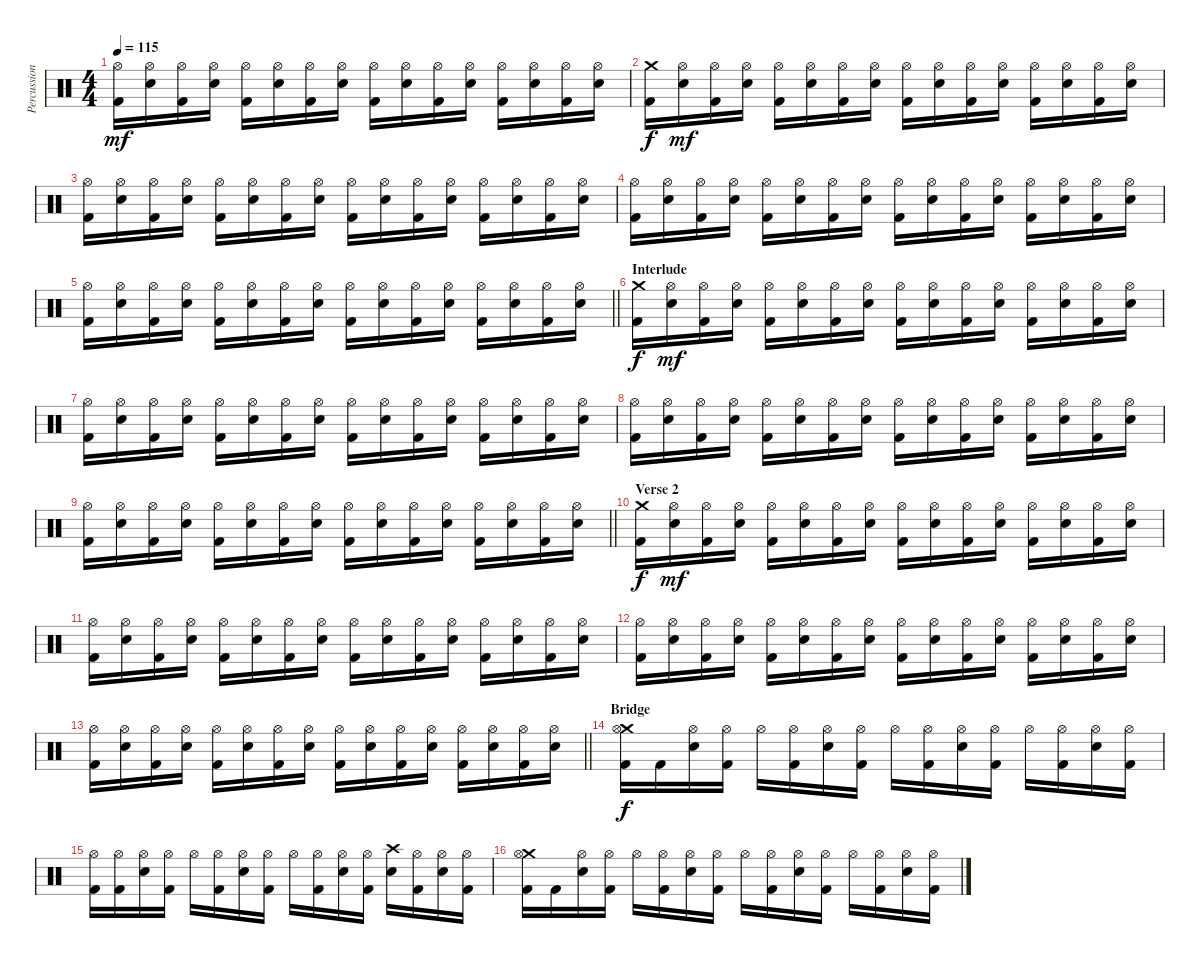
\track ("Percussion" "Percussion") {instrument percussion}
\staff {score}
\articulation defaults
\ts (4 4)
\tempo 115
\clef neutral
\ks c
("Hi-Hat (open)" "Kick (hit) 2").16{dy mf} ("Hi-Hat (open)" "Snare (hit) 2").16 ("Hi-Hat (open)" "Kick (hit) 2").16 ("Hi-Hat (open)" "Snare (hit) 2").16 ("Hi-Hat (open)" "Kick (hit) 2").16 ("Hi-Hat (open)" "Snare (hit) 2").16 ("Hi-Hat (open)" "Kick (hit) 2").16 ("Hi-Hat (open)" "Snare (hit) 2").16 ("Hi-Hat (open)" "Kick (hit) 2").16 ("Hi-Hat (open)" "Snare (hit) 2").16 ("Hi-Hat (open)" "Kick (hit) 2").16 ("Hi-Hat (open)" "Snare (hit) 2").16 ("Hi-Hat (open)" "Kick (hit) 2").16 ("Hi-Hat (open)" "Snare (hit) 2").16 ("Hi-Hat (open)" "Kick (hit) 2").16 ("Hi-Hat (open)" "Snare (hit) 2").16 |
("Crash medium (hit)" "Kick (hit) 2").16{dy f} ("Hi-Hat (open)" "Snare (hit) 2").16{dy mf} ("Hi-Hat (open)" "Kick (hit) 2").16 ("Hi-Hat (open)" "Snare (hit) 2").16 ("Hi-Hat (open)" "Kick (hit) 2").16 ("Hi-Hat (open)" "Snare (hit) 2").16 ("Hi-Hat (open)" "Kick (hit) 2").16 ("Hi-Hat (open)" "Snare (hit) 2").16 ("Hi-Hat (open)" "Kick (hit) 2").16 ("Hi-Hat (open)" "Snare (hit) 2").16 ("Hi-Hat (open)" "Kick (hit) 2").16 ("Hi-Hat (open)" "Snare (hit) 2").16 ("Hi-Hat (open)" "Kick (hit) 2").16 ("Hi-Hat (open)" "Snare (hit) 2").16 ("Hi-Hat (open)" "Kick (hit) 2").16 ("Hi-Hat (open)" "Snare (hit) 2").16 |
("Hi-Hat (open)" "Kick (hit) 2").16 ("Hi-Hat (open)" "Snare (hit) 2").16 ("Hi-Hat (open)" "Kick (hit) 2").16 ("Hi-Hat (open)" "Snare (hit) 2").16 ("Hi-Hat (open)" "Kick (hit) 2").16 ("Hi-Hat (open)" "Snare (hit) 2").16 ("Hi-Hat (open)" "Kick (hit) 2").16 ("Hi-Hat (open)" "Snare (hit) 2").16 ("Hi-Hat (open)" "Kick (hit) 2").16 ("Hi-Hat (open)" "Snare (hit) 2").16 ("Hi-Hat (open)" "Kick (hit) 2").16 ("Hi-Hat (open)" "Snare (hit) 2").16 ("Hi-Hat (open)" "Kick (hit) 2").16 ("Hi-Hat (open)" "Snare (hit) 2").16 ("Hi-Hat (open)" "Kick (hit) 2").16 ("Hi-Hat (open)" "Snare (hit) 2").16 |
("Hi-Hat (open)" "Kick (hit) 2").16 ("Hi-Hat (open)" "Snare (hit) 2").16 ("Hi-Hat (open)" "Kick (hit) 2").16 ("Hi-Hat (open)" "Snare (hit) 2").16 ("Hi-Hat (open)" "Kick (hit) 2").16 ("Hi-Hat (open)" "Snare (hit) 2").16 ("Hi-Hat (open)" "Kick (hit) 2").16 ("Hi-Hat (open)" "Snare (hit) 2").16 ("Hi-Hat (open)" "Kick (hit) 2").16 ("Hi-Hat (open)" "Snare (hit) 2").16 ("Hi-Hat (open)" "Kick (hit) 2").16 ("Hi-Hat (open)" "Snare (hit) 2").16 ("Hi-Hat (open)" "Kick (hit) 2").16 ("Hi-Hat (open)" "Snare (hit) 2").16 ("Hi-Hat (open)" "Kick (hit) 2").16 ("Hi-Hat (open)" "Snare (hit) 2").16 |
\barLineRight lightlight
("Hi-Hat (open)" "Kick (hit) 2").16 ("Hi-Hat (open)" "Snare (hit) 2").16 ("Hi-Hat (open)" "Kick (hit) 2").16 ("Hi-Hat (open)" "Snare (hit) 2").16 ("Hi-Hat (open)" "Kick (hit) 2").16 ("Hi-Hat (open)" "Snare (hit) 2").16 ("Hi-Hat (open)" "Kick (hit) 2").16 ("Hi-Hat (open)" "Snare (hit) 2").16 ("Hi-Hat (open)" "Kick (hit) 2").16 ("Hi-Hat (open)" "Snare (hit) 2").16 ("Hi-Hat (open)" "Kick (hit) 2").16 ("Hi-Hat (open)" "Snare (hit) 2").16 ("Hi-Hat (open)" "Kick (hit) 2").16 ("Hi-Hat (open)" "Snare (hit) 2").16 ("Hi-Hat (open)" "Kick (hit) 2").16 ("Hi-Hat (open)" "Snare (hit) 2").16 |
\section ("" "Interlude")
("Crash medium (hit)" "Kick (hit) 2").16{dy f} ("Hi-Hat (open)" "Snare (hit) 2").16{dy mf} ("Hi-Hat (open)" "Kick (hit) 2").16 ("Hi-Hat (open)" "Snare (hit) 2").16 ("Hi-Hat (open)" "Kick (hit) 2").16 ("Hi-Hat (open)" "Snare (hit) 2").16 ("Hi-Hat (open)" "Kick (hit) 2").16 ("Hi-Hat (open)" "Snare (hit) 2").16 ("Hi-Hat (open)" "Kick (hit) 2").16 ("Hi-Hat (open)" "Snare (hit) 2").16 ("Hi-Hat (open)" "Kick (hit) 2").16 ("Hi-Hat (open)" "Snare (hit) 2").16 ("Hi-Hat (open)" "Kick (hit) 2").16 ("Hi-Hat (open)" "Snare (hit) 2").16 ("Hi-Hat (open)" "Kick (hit) 2").16 ("Hi-Hat (open)" "Snare (hit) 2").16 |
("Hi-Hat (open)" "Kick (hit) 2").16 ("Hi-Hat (open)" "Snare (hit) 2").16 ("Hi-Hat (open)" "Kick (hit) 2").16 ("Hi-Hat (open)" "Snare (hit) 2").16 ("Hi-Hat (open)" "Kick (hit) 2").16 ("Hi-Hat (open)" "Snare (hit) 2").16 ("Hi-Hat (open)" "Kick (hit) 2").16 ("Hi-Hat (open)" "Snare (hit) 2").16 ("Hi-Hat (open)" "Kick (hit) 2").16 ("Hi-Hat (open)" "Snare (hit) 2").16 ("Hi-Hat (open)" "Kick (hit) 2").16 ("Hi-Hat (open)" "Snare (hit) 2").16 ("Hi-Hat (open)" "Kick (hit) 2").16 ("Hi-Hat (open)" "Snare (hit) 2").16 ("Hi-Hat (open)" "Kick (hit) 2").16 ("Hi-Hat (open)" "Snare (hit) 2").16 |
("Hi-Hat (open)" "Kick (hit) 2").16 ("Hi-Hat (open)" "Snare (hit) 2").16 ("Hi-Hat (open)" "Kick (hit) 2").16 ("Hi-Hat (open)" "Snare (hit) 2").16 ("Hi-Hat (open)" "Kick (hit) 2").16 ("Hi-Hat (open)" "Snare (hit) 2").16 ("Hi-Hat (open)" "Kick (hit) 2").16 ("Hi-Hat (open)" "Snare (hit) 2").16 ("Hi-Hat (open)" "Kick (hit) 2").16 ("Hi-Hat (open)" "Snare (hit) 2").16 ("Hi-Hat (open)" "Kick (hit) 2").16 ("Hi-Hat (open)" "Snare (hit) 2").16 ("Hi-Hat (open)" "Kick (hit) 2").16 ("Hi-Hat (open)" "Snare (hit) 2").16 ("Hi-Hat (open)" "Kick (hit) 2").16 ("Hi-Hat (open)" "Snare (hit) 2").16 |
\barLineRight lightlight
("Hi-Hat (open)" "Kick (hit) 2").16 ("Hi-Hat (open)" "Snare (hit) 2").16 ("Hi-Hat (open)" "Kick (hit) 2").16 ("Hi-Hat (open)" "Snare (hit) 2").16 ("Hi-Hat (open)" "Kick (hit) 2").16 ("Hi-Hat (open)" "Snare (hit) 2").16 ("Hi-Hat (open)" "Kick (hit) 2").16 ("Hi-Hat (open)" "Snare (hit) 2").16 ("Hi-Hat (open)" "Kick (hit) 2").16 ("Hi-Hat (open)" "Snare (hit) 2").16 ("Hi-Hat (open)" "Kick (hit) 2").16 ("Hi-Hat (open)" "Snare (hit) 2").16 ("Hi-Hat (open)" "Kick (hit) 2").16 ("Hi-Hat (open)" "Snare (hit) 2").16 ("Hi-Hat (open)" "Kick (hit) 2").16 ("Hi-Hat (open)" "Snare (hit) 2").16 |
\section ("" "Verse 2")
("Crash medium (hit)" "Kick (hit) 2").16{dy f} ("Hi-Hat (open)" "Snare (hit) 2").16{dy mf} ("Hi-Hat (open)" "Kick (hit) 2").16 ("Hi-Hat (open)" "Snare (hit) 2").16 ("Hi-Hat (open)" "Kick (hit) 2").16 ("Hi-Hat (open)" "Snare (hit) 2").16 ("Hi-Hat (open)" "Kick (hit) 2").16 ("Hi-Hat (open)" "Snare (hit) 2").16 ("Hi-Hat (open)" "Kick (hit) 2").16 ("Hi-Hat (open)" "Snare (hit) 2").16 ("Hi-Hat (open)" "Kick (hit) 2").16 ("Hi-Hat (open)" "Snare (hit) 2").16 ("Hi-Hat (open)" "Kick (hit) 2").16 ("Hi-Hat (open)" "Snare (hit) 2").16 ("Hi-Hat (open)" "Kick (hit) 2").16 ("Hi-Hat (open)" "Snare (hit) 2").16 |
("Hi-Hat (open)" "Kick (hit) 2").16 ("Hi-Hat (open)" "Snare (hit) 2").16 ("Hi-Hat (open)" "Kick (hit) 2").16 ("Hi-Hat (open)" "Snare (hit) 2").16 ("Hi-Hat (open)" "Kick (hit) 2").16 ("Hi-Hat (open)" "Snare (hit) 2").16 ("Hi-Hat (open)" "Kick (hit) 2").16 ("Hi-Hat (open)" "Snare (hit) 2").16 ("Hi-Hat (open)" "Kick (hit) 2").16 ("Hi-Hat (open)" "Snare (hit) 2").16 ("Hi-Hat (open)" "Kick (hit) 2").16 ("Hi-Hat (open)" "Snare (hit) 2").16 ("Hi-Hat (open)" "Kick (hit) 2").16 ("Hi-Hat (open)" "Snare (hit) 2").16 ("Hi-Hat (open)" "Kick (hit) 2").16 ("Hi-Hat (open)" "Snare (hit) 2").16 |
("Hi-Hat (open)" "Kick (hit) 2").16 ("Hi-Hat (open)" "Snare (hit) 2").16 ("Hi-Hat (open)" "Kick (hit) 2").16 ("Hi-Hat (open)" "Snare (hit) 2").16 ("Hi-Hat (open)" "Kick (hit) 2").16 ("Hi-Hat (open)" "Snare (hit) 2").16 ("Hi-Hat (open)" "Kick (hit) 2").16 ("Hi-Hat (open)" "Snare (hit) 2").16 ("Hi-Hat (open)" "Kick (hit) 2").16 ("Hi-Hat (open)" "Snare (hit) 2").16 ("Hi-Hat (open)" "Kick (hit) 2").16 ("Hi-Hat (open)" "Snare (hit) 2").16 ("Hi-Hat (open)" "Kick (hit) 2").16 ("Hi-Hat (open)" "Snare (hit) 2").16 ("Hi-Hat (open)" "Kick (hit) 2").16 ("Hi-Hat (open)" "Snare (hit) 2").16 |
\barLineRight lightlight
("Hi-Hat (open)" "Kick (hit) 2").16 ("Hi-Hat (open)" "Snare (hit) 2").16 ("Hi-Hat (open)" "Kick (hit) 2").16 ("Hi-Hat (open)" "Snare (hit) 2").16 ("Hi-Hat (open)" "Kick (hit) 2").16 ("Hi-Hat (open)" "Snare (hit) 2").16 ("Hi-Hat (open)" "Kick (hit) 2").16 ("Hi-Hat (open)" "Snare (hit) 2").16 ("Hi-Hat (open)" "Kick (hit) 2").16 ("Hi-Hat (open)" "Snare (hit) 2").16 ("Hi-Hat (open)" "Kick (hit) 2").16 ("Hi-Hat (open)" "Snare (hit) 2").16 ("Hi-Hat (open)" "Kick (hit) 2").16 ("Hi-Hat (open)" "Snare (hit) 2").16 ("Hi-Hat (open)" "Kick (hit) 2").16 ("Hi-Hat (open)" "Snare (hit) 2").16 |
\section ("" "Bridge")
("Crash medium (hit)" "Hi-Hat (open)" "Kick (hit) 2").16{dy f} "Kick (hit) 2".16 ("Hi-Hat (open)" "Snare (hit) 2").16 ("Hi-Hat (open)" "Kick (hit) 2").16 "Hi-Hat (open)".16 ("Hi-Hat (open)" "Kick (hit) 2").16 ("Hi-Hat (open)" "Snare (hit) 2").16 ("Hi-Hat (open)" "Kick (hit) 2").16 "Hi-Hat (open)".16 ("Hi-Hat (open)" "Kick (hit) 2").16 ("Hi-Hat (open)" "Snare (hit) 2").16 ("Hi-Hat (open)" "Kick (hit) 2").16 "Hi-Hat (open)".16 ("Hi-Hat (open)" "Kick (hit) 2").16 ("Hi-Hat (open)" "Snare (hit) 2").16 ("Hi-Hat (open)" "Kick (hit) 2").16 |
("Hi-Hat (open)" "Kick (hit) 2").16 ("Hi-Hat (open)" "Kick (hit) 2").16 ("Hi-Hat (open)" "Snare (hit) 2").16 ("Hi-Hat (open)" "Kick (hit) 2").16 "Hi-Hat (open)".16 ("Hi-Hat (open)" "Kick (hit) 2").16 ("Hi-Hat (open)" "Snare (hit) 2").16 ("Hi-Hat (open)" "Kick (hit) 2").16 "Hi-Hat (open)".16 ("Hi-Hat (open)" "Kick (hit) 2").16 ("Hi-Hat (open)" "Snare (hit) 2").16 ("Hi-Hat (open)" "Kick (hit) 2").16 ("Crash high (hit)" "Snare (hit) 2").16 ("Hi-Hat (open)" "Kick (hit) 2").16 ("Hi-Hat (open)" "Snare (hit) 2").16 ("Hi-Hat (open)" "Kick (hit) 2").16 |
("Crash medium (hit)" "Hi-Hat (open)" "Kick (hit) 2").16 "Kick (hit) 2".16 ("Hi-Hat (open)" "Snare (hit) 2").16 ("Hi-Hat (open)" "Kick (hit) 2").16 "Hi-Hat (open)".16 ("Hi-Hat (open)" "Kick (hit) 2").16 ("Hi-Hat (open)" "Snare (hit) 2").16 ("Hi-Hat (open)" "Kick (hit) 2").16 "Hi-Hat (open)".16 ("Hi-Hat (open)" "Kick (hit) 2").16 ("Hi-Hat (open)" "Snare (hit) 2").16 ("Hi-Hat (open)" "Kick (hit) 2").16 "Hi-Hat (open)".16 ("Hi-Hat (open)" "Kick (hit) 2").16 ("Hi-Hat (open)" "Snare (hit) 2").16 ("Hi-Hat (open)" "Kick (hit) 2").16
